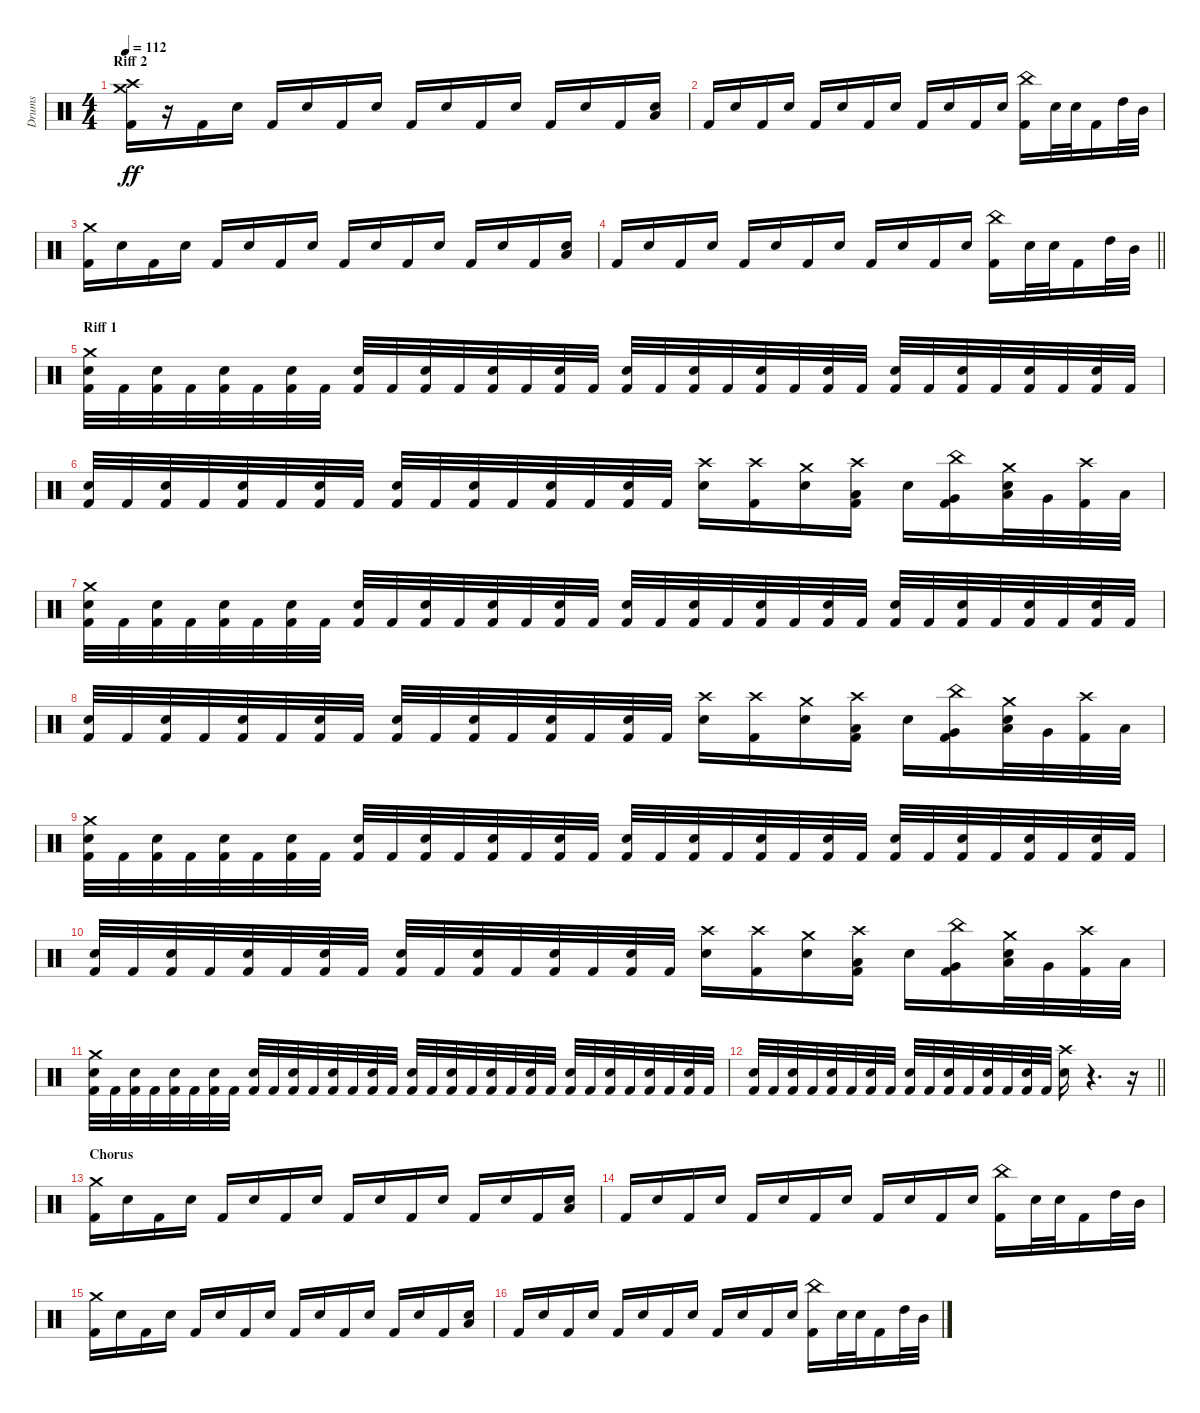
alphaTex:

\track ("Drums" "Drums") {instrument percussion}
\staff {score}
\articulation defaults
\ts (4 4)
\section ("" "Riff 2")
\tempo 112
\clef neutral
\ks c
("Crash high (hit)" "Crash medium (hit)" "Kick (hit) 2").16{dy ff} r.16 "Kick (hit) 2".16 "Snare (hit) 2".16 "Kick (hit) 2".16 "Snare (hit) 2".16 "Kick (hit) 2".16 "Snare (hit) 2".16 "Kick (hit) 2".16 "Snare (hit) 2".16 "Kick (hit) 2".16 "Snare (hit) 2".16 "Kick (hit) 2".16 "Snare (hit) 2".16 "Kick (hit) 2".16 ("Snare (hit) 2" "Low Tom (hit)").16 |
"Kick (hit) 2".16 "Snare (hit) 2".16 "Kick (hit) 2".16 "Snare (hit) 2".16 "Kick (hit) 2".16 "Snare (hit) 2".16 "Kick (hit) 2".16 "Snare (hit) 2".16 "Kick (hit) 2".16 "Snare (hit) 2".16 "Kick (hit) 2".16 "Snare (hit) 2".16 ("China (hit)" "Kick (hit) 2").16 "Snare (hit) 2".32 "Snare (hit) 2".32 "Kick (hit) 2".16 "High Tom (hit)".32 "Mid Tom (hit)".32 |
("Crash medium (hit)" "Kick (hit) 2").16 "Snare (hit) 2".16 "Kick (hit) 2".16 "Snare (hit) 2".16 "Kick (hit) 2".16 "Snare (hit) 2".16 "Kick (hit) 2".16 "Snare (hit) 2".16 "Kick (hit) 2".16 "Snare (hit) 2".16 "Kick (hit) 2".16 "Snare (hit) 2".16 "Kick (hit) 2".16 "Snare (hit) 2".16 "Kick (hit) 2".16 ("Snare (hit) 2" "Low Tom (hit)").16 |
\barLineRight lightlight "Kick (hit) 2".16 "Snare (hit) 2".16 "Kick (hit) 2".16 "Snare (hit) 2".16 "Kick (hit) 2".16 "Snare (hit) 2".16 "Kick (hit) 2".16 "Snare (hit) 2".16 "Kick (hit) 2".16 "Snare (hit) 2".16 "Kick (hit) 2".16 "Snare (hit) 2".16
("China (hit)" "Kick (hit) 2").16 "Snare (hit) 2".32 "Snare (hit) 2".32 "Kick (hit) 2".16 "High Tom (hit)".32 "Mid Tom (hit)".32 |
\section ("" "Riff 1")
("Crash medium (hit)" "Kick (hit) 2" "Snare (hit) 2").32 "Kick (hit) 2".32 ("Kick (hit) 2" "Snare (hit) 2").32 "Kick (hit) 2".32 ("Kick (hit) 2" "Snare (hit) 2").32 "Kick (hit) 2".32 ("Kick (hit) 2" "Snare (hit) 2").32 "Kick (hit) 2".32 ("Kick (hit) 2" "Snare (hit) 2").32 "Kick (hit) 2".32 ("Kick (hit) 2" "Snare (hit) 2").32 "Kick (hit) 2".32 ("Kick (hit) 2" "Snare (hit) 2").32 "Kick (hit) 2".32 ("Kick (hit) 2" "Snare (hit) 2").32 "Kick (hit) 2".32 ("Kick (hit) 2" "Snare (hit) 2").32 "Kick (hit) 2".32 ("Kick (hit) 2" "Snare (hit) 2").32 "Kick (hit) 2".32 ("Kick (hit) 2" "Snare (hit) 2").32 "Kick (hit) 2".32 ("Kick (hit) 2" "Snare (hit) 2").32 "Kick (hit) 2".32 ("Kick (hit) 2" "Snare (hit) 2").32 "Kick (hit) 2".32 ("Kick (hit) 2" "Snare (hit) 2").32 "Kick (hit) 2".32 ("Kick (hit) 2" "Snare (hit) 2").32 "Kick (hit) 2".32 ("Kick (hit) 2" "Snare (hit) 2").32 "Kick (hit) 2".32 |
("Kick (hit) 2" "Snare (hit) 2").32 "Kick (hit) 2".32 ("Kick (hit) 2" "Snare (hit) 2").32 "Kick (hit) 2".32 ("Kick (hit) 2" "Snare (hit) 2").32 "Kick (hit) 2".32 ("Kick (hit) 2" "Snare (hit) 2").32 "Kick (hit) 2".32 ("Kick (hit) 2" "Snare (hit) 2").32 "Kick (hit) 2".32 ("Kick (hit) 2" "Snare (hit) 2").32 "Kick (hit) 2".32 ("Kick (hit) 2" "Snare (hit) 2").32 "Kick (hit) 2".32 ("Kick (hit) 2" "Snare (hit) 2").32 "Kick (hit) 2".32 ("Crash high (hit)" "Snare (hit) 2").16 ("Crash high (hit)" "Kick (hit) 2").16 ("Crash medium (hit)" "Snare (hit) 2").16 ("Crash high (hit)" "Kick (hit) 2" "Low Tom (hit)").16 "Snare (hit) 2".16 ("China (hit)" "Kick (hit) 2" "Very Low Tom (hit)").16 ("Crash medium (hit)" "Snare (hit) 2" "Low Tom (hit)").32 "Very Low Tom (hit)".32 ("Crash high (hit)" "Kick (hit) 2").32 "Low Tom (hit)".32 |
("Crash medium (hit)" "Kick (hit) 2" "Snare (hit) 2").32 "Kick (hit) 2".32 ("Kick (hit) 2" "Snare (hit) 2").32 "Kick (hit) 2".32 ("Kick (hit) 2" "Snare (hit) 2").32 "Kick (hit) 2".32 ("Kick (hit) 2" "Snare (hit) 2").32 "Kick (hit) 2".32 ("Kick (hit) 2" "Snare (hit) 2").32 "Kick (hit) 2".32 ("Kick (hit) 2" "Snare (hit) 2").32 "Kick (hit) 2".32 ("Kick (hit) 2" "Snare (hit) 2").32 "Kick (hit) 2".32 ("Kick (hit) 2" "Snare (hit) 2").32 "Kick (hit) 2".32 ("Kick (hit) 2" "Snare (hit) 2").32 "Kick (hit) 2".32 ("Kick (hit) 2" "Snare (hit) 2").32 "Kick (hit) 2".32 ("Kick (hit) 2" "Snare (hit) 2").32 "Kick (hit) 2".32 ("Kick (hit) 2" "Snare (hit) 2").32 "Kick (hit) 2".32 ("Kick (hit) 2" "Snare (hit) 2").32 "Kick (hit) 2".32 ("Kick (hit) 2" "Snare (hit) 2").32 "Kick (hit) 2".32 ("Kick (hit) 2" "Snare (hit) 2").32 "Kick (hit) 2".32 ("Kick (hit) 2" "Snare (hit) 2").32 "Kick (hit) 2".32 |
("Kick (hit) 2" "Snare (hit) 2").32 "Kick (hit) 2".32 ("Kick (hit) 2" "Snare (hit) 2").32 "Kick (hit) 2".32 ("Kick (hit) 2" "Snare (hit) 2").32 "Kick (hit) 2".32 ("Kick (hit) 2" "Snare (hit) 2").32 "Kick (hit) 2".32 ("Kick (hit) 2" "Snare (hit) 2").32 "Kick (hit) 2".32 ("Kick (hit) 2" "Snare (hit) 2").32 "Kick (hit) 2".32 ("Kick (hit) 2" "Snare (hit) 2").32 "Kick (hit) 2".32 ("Kick (hit) 2" "Snare (hit) 2").32 "Kick (hit) 2".32 ("Crash high (hit)" "Snare (hit) 2").16 ("Crash high (hit)" "Kick (hit) 2").16 ("Crash medium (hit)" "Snare (hit) 2").16 ("Crash high (hit)" "Kick (hit) 2" "Low Tom (hit)").16 "Snare (hit) 2".16 ("China (hit)" "Kick (hit) 2" "Very Low Tom (hit)").16 ("Crash medium (hit)" "Snare (hit) 2" "Low Tom (hit)").32 "Very Low Tom (hit)".32 ("Crash high (hit)" "Kick (hit) 2").32 "Low Tom (hit)".32 |
("Crash medium (hit)" "Kick (hit) 2" "Snare (hit) 2").32 "Kick (hit) 2".32 ("Kick (hit) 2" "Snare (hit) 2").32 "Kick (hit) 2".32 ("Kick (hit) 2" "Snare (hit) 2").32 "Kick (hit) 2".32 ("Kick (hit) 2" "Snare (hit) 2").32 "Kick (hit) 2".32 ("Kick (hit) 2" "Snare (hit) 2").32 "Kick (hit) 2".32 ("Kick (hit) 2" "Snare (hit) 2").32 "Kick (hit) 2".32 ("Kick (hit) 2" "Snare (hit) 2").32 "Kick (hit) 2".32 ("Kick (hit) 2" "Snare (hit) 2").32 "Kick (hit) 2".32 ("Kick (hit) 2" "Snare (hit) 2").32 "Kick (hit) 2".32 ("Kick (hit) 2" "Snare (hit) 2").32 "Kick (hit) 2".32 ("Kick (hit) 2" "Snare (hit) 2").32 "Kick (hit) 2".32 ("Kick (hit) 2" "Snare (hit) 2").32 "Kick (hit) 2".32 ("Kick (hit) 2" "Snare (hit) 2").32 "Kick (hit) 2".32 ("Kick (hit) 2" "Snare (hit) 2").32 "Kick (hit) 2".32 ("Kick (hit) 2" "Snare (hit) 2").32 "Kick (hit) 2".32 ("Kick (hit) 2" "Snare (hit) 2").32 "Kick (hit) 2".32 |
("Kick (hit) 2" "Snare (hit) 2").32 "Kick (hit) 2".32 ("Kick (hit) 2" "Snare (hit) 2").32 "Kick (hit) 2".32 ("Kick (hit) 2" "Snare (hit) 2").32 "Kick (hit) 2".32 ("Kick (hit) 2" "Snare (hit) 2").32 "Kick (hit) 2".32 ("Kick (hit) 2" "Snare (hit) 2").32 "Kick (hit) 2".32 ("Kick (hit) 2" "Snare (hit) 2").32 "Kick (hit) 2".32 ("Kick (hit) 2" "Snare (hit) 2").32 "Kick (hit) 2".32 ("Kick (hit) 2" "Snare (hit) 2").32 "Kick (hit) 2".32 ("Crash high (hit)" "Snare (hit) 2").16 ("Crash high (hit)" "Kick (hit) 2").16 ("Crash medium (hit)" "Snare (hit) 2").16 ("Crash high (hit)" "Kick (hit) 2" "Low Tom (hit)").16 "Snare (hit) 2".16 ("China (hit)" "Kick (hit) 2" "Very Low Tom (hit)").16 ("Crash medium (hit)" "Snare (hit) 2" "Low Tom (hit)").32 "Very Low Tom (hit)".32 ("Crash high (hit)" "Kick (hit) 2").32 "Low Tom (hit)".32 |
("Crash medium (hit)" "Kick (hit) 2" "Snare (hit) 2").32 "Kick (hit) 2".32 ("Kick (hit) 2" "Snare (hit) 2").32 "Kick (hit) 2".32 ("Kick (hit) 2" "Snare (hit) 2").32 "Kick (hit) 2".32 ("Kick (hit) 2" "Snare (hit) 2").32 "Kick (hit) 2".32 ("Kick (hit) 2" "Snare (hit) 2").32 "Kick (hit) 2".32 ("Kick (hit) 2" "Snare (hit) 2").32 "Kick (hit) 2".32 ("Kick (hit) 2" "Snare (hit) 2").32 "Kick (hit) 2".32 ("Kick (hit) 2" "Snare (hit) 2").32 "Kick (hit) 2".32 ("Kick (hit) 2" "Snare (hit) 2").32 "Kick (hit) 2".32 ("Kick (hit) 2" "Snare (hit) 2").32 "Kick (hit) 2".32 ("Kick (hit) 2" "Snare (hit) 2").32 "Kick (hit) 2".32 ("Kick (hit) 2" "Snare (hit) 2").32 "Kick (hit) 2".32 ("Kick (hit) 2" "Snare (hit) 2").32 "Kick (hit) 2".32 ("Kick (hit) 2" "Snare (hit) 2").32 "Kick (hit) 2".32 ("Kick (hit) 2" "Snare (hit) 2").32 "Kick (hit) 2".32 ("Kick (hit) 2" "Snare (hit) 2").32 "Kick (hit) 2".32 |
\barLineRight lightlight
("Kick (hit) 2" "Snare (hit) 2").32 "Kick (hit) 2".32 ("Kick (hit) 2" "Snare (hit) 2").32 "Kick (hit) 2".32 ("Kick (hit) 2" "Snare (hit) 2").32 "Kick (hit) 2".32 ("Kick (hit) 2" "Snare (hit) 2").32 "Kick (hit) 2".32 ("Kick (hit) 2" "Snare (hit) 2").32 "Kick (hit) 2".32 ("Kick (hit) 2" "Snare (hit) 2").32 "Kick (hit) 2".32 ("Kick (hit) 2" "Snare (hit) 2").32 "Kick (hit) 2".32 ("Kick (hit) 2" "Snare (hit) 2").32 "Kick (hit) 2".32 ("Crash high (hit)" "Snare (hit) 2").16 r.4{d} r.16 |
\section ("" "Chorus")
("Crash medium (hit)" "Kick (hit) 2").16 "Snare (hit) 2".16 "Kick (hit) 2".16 "Snare (hit) 2".16 "Kick (hit) 2".16 "Snare (hit) 2".16 "Kick (hit) 2".16 "Snare (hit) 2".16 "Kick (hit) 2".16 "Snare (hit) 2".16 "Kick (hit) 2".16 "Snare (hit) 2".16 "Kick (hit) 2".16 "Snare (hit) 2".16 "Kick (hit) 2".16 ("Snare (hit) 2" "Low Tom (hit)").16 |
"Kick (hit) 2".16 "Snare (hit) 2".16 "Kick (hit) 2".16 "Snare (hit) 2".16 "Kick (hit) 2".16 "Snare (hit) 2".16 "Kick (hit) 2".16 "Snare (hit) 2".16 "Kick (hit) 2".16 "Snare (hit) 2".16 "Kick (hit) 2".16 "Snare (hit) 2".16 ("China (hit)" "Kick (hit) 2").16 "Snare (hit) 2".32 "Snare (hit) 2".32 "Kick (hit) 2".16 "High Tom (hit)".32 "Mid Tom (hit)".32 |
("Crash medium (hit)" "Kick (hit) 2").16 "Snare (hit) 2".16 "Kick (hit) 2".16 "Snare (hit) 2".16 "Kick (hit) 2".16 "Snare (hit) 2".16 "Kick (hit) 2".16 "Snare (hit) 2".16 "Kick (hit) 2".16 "Snare (hit) 2".16 "Kick (hit) 2".16 "Snare (hit) 2".16 "Kick (hit) 2".16 "Snare (hit) 2".16 "Kick (hit) 2".16 ("Snare (hit) 2" "Low Tom (hit)").16 |
"Kick (hit) 2".16 "Snare (hit) 2".16 "Kick (hit) 2".16 "Snare (hit) 2".16 "Kick (hit) 2".16 "Snare (hit) 2".16 "Kick (hit) 2".16 "Snare (hit) 2".16 "Kick (hit) 2".16 "Snare (hit) 2".16 "Kick (hit) 2".16 "Snare (hit) 2".16 ("China (hit)" "Kick (hit) 2").16 "Snare (hit) 2".32 "Snare (hit) 2".32 "Kick (hit) 2".16 "High Tom (hit)".32 "Mid Tom (hit)".32
